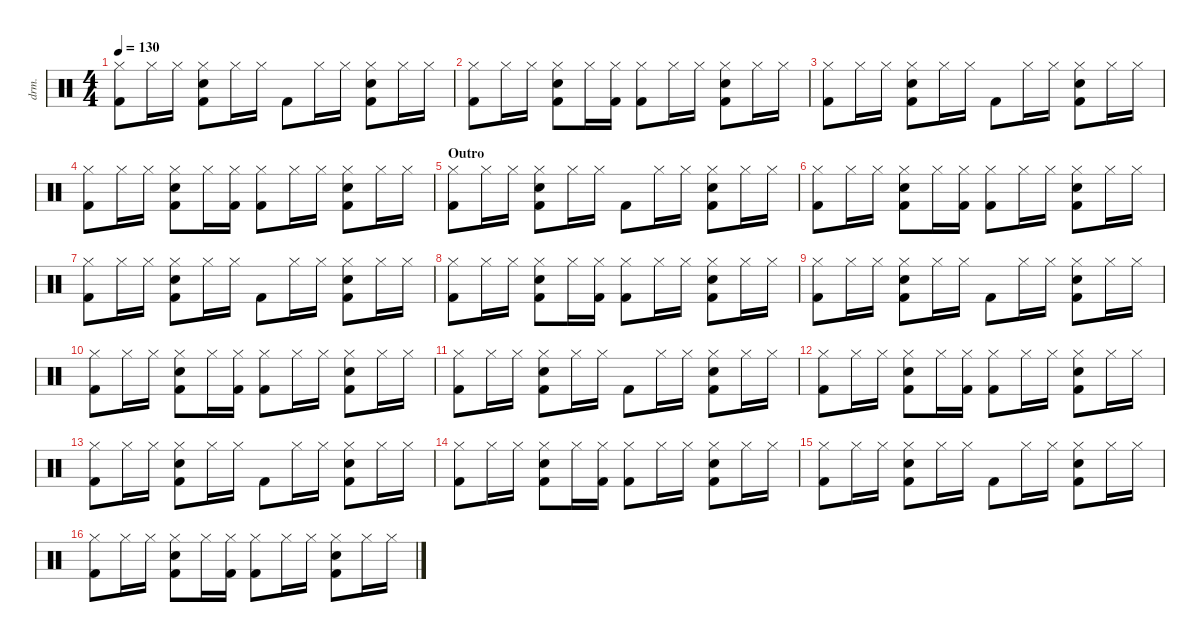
\defaultSystemsLayout 4
\hideDynamics
\bracketExtendMode nobrackets
\otherSystemsTrackNameOrientation horizontal
\track ("Percussion" "drm.") {defaultSystemsLayout 4 instrument percussion}
\staff {score}
\articulation defaults
\ts (4 4)
\tempo 130
\clef neutral
\ks c
("Hi-Hat (closed)" "Kick (hit) 2").8{dy f beam Down} "Hi-Hat (closed)".16{beam Down} "Hi-Hat (closed)".16{beam Down} ("Hi-Hat (closed)" "Snare (hit) 2" "Kick (hit) 2").8{beam Down} "Hi-Hat (closed)".16{beam Down} "Hi-Hat (closed)".16{beam Down} "Kick (hit) 2".8{beam Down} "Hi-Hat (closed)".16{beam Down} "Hi-Hat (closed)".16{beam Down} ("Hi-Hat (closed)" "Snare (hit) 2" "Kick (hit) 2").8{beam Down} "Hi-Hat (closed)".16{beam Down} "Hi-Hat (closed)".16{beam Down} |
("Hi-Hat (closed)" "Kick (hit) 2").8{beam Down} "Hi-Hat (closed)".16{beam Down} "Hi-Hat (closed)".16{beam Down} ("Hi-Hat (closed)" "Snare (hit) 2" "Kick (hit) 2").8{beam Down} "Hi-Hat (closed)".16{beam Down} ("Hi-Hat (closed)" "Kick (hit) 2").16{beam Down} ("Hi-Hat (closed)" "Kick (hit) 2").8{beam Down} "Hi-Hat (closed)".16{beam Down} "Hi-Hat (closed)".16{beam Down} ("Hi-Hat (closed)" "Snare (hit) 2" "Kick (hit) 2").8{beam Down} "Hi-Hat (closed)".16{beam Down} "Hi-Hat (closed)".16{beam Down} |
("Hi-Hat (closed)" "Kick (hit) 2").8{beam Down} "Hi-Hat (closed)".16{beam Down} "Hi-Hat (closed)".16{beam Down} ("Hi-Hat (closed)" "Snare (hit) 2" "Kick (hit) 2").8{beam Down} "Hi-Hat (closed)".16{beam Down} "Hi-Hat (closed)".16{beam Down} "Kick (hit) 2".8{beam Down} "Hi-Hat (closed)".16{beam Down} "Hi-Hat (closed)".16{beam Down} ("Hi-Hat (closed)" "Snare (hit) 2" "Kick (hit) 2").8{beam Down} "Hi-Hat (closed)".16{beam Down} "Hi-Hat (closed)".16{beam Down} |
("Hi-Hat (closed)" "Kick (hit) 2").8{beam Down} "Hi-Hat (closed)".16{beam Down} "Hi-Hat (closed)".16{beam Down} ("Hi-Hat (closed)" "Snare (hit) 2" "Kick (hit) 2").8{beam Down} "Hi-Hat (closed)".16{beam Down} ("Hi-Hat (closed)" "Kick (hit) 2").16{beam Down} ("Hi-Hat (closed)" "Kick (hit) 2").8{beam Down} "Hi-Hat (closed)".16{beam Down} "Hi-Hat (closed)".16{beam Down} ("Hi-Hat (closed)" "Snare (hit) 2" "Kick (hit) 2").8{beam Down} "Hi-Hat (closed)".16{beam Down} "Hi-Hat (closed)".16{beam Down} |
\section ("" "Outro")
("Hi-Hat (closed)" "Kick (hit) 2").8{beam Down} "Hi-Hat (closed)".16{beam Down} "Hi-Hat (closed)".16{beam Down} ("Hi-Hat (closed)" "Snare (hit) 2" "Kick (hit) 2").8{beam Down} "Hi-Hat (closed)".16{beam Down} "Hi-Hat (closed)".16{beam Down} "Kick (hit) 2".8{beam Down} "Hi-Hat (closed)".16{beam Down} "Hi-Hat (closed)".16{beam Down} ("Hi-Hat (closed)" "Snare (hit) 2" "Kick (hit) 2").8{beam Down} "Hi-Hat (closed)".16{beam Down} "Hi-Hat (closed)".16{beam Down} |
("Hi-Hat (closed)" "Kick (hit) 2").8{beam Down} "Hi-Hat (closed)".16{beam Down} "Hi-Hat (closed)".16{beam Down} ("Hi-Hat (closed)" "Snare (hit) 2" "Kick (hit) 2").8{beam Down} "Hi-Hat (closed)".16{beam Down} ("Hi-Hat (closed)" "Kick (hit) 2").16{beam Down} ("Hi-Hat (closed)" "Kick (hit) 2").8{beam Down} "Hi-Hat (closed)".16{beam Down} "Hi-Hat (closed)".16{beam Down} ("Hi-Hat (closed)" "Snare (hit) 2" "Kick (hit) 2").8{beam Down} "Hi-Hat (closed)".16{beam Down} "Hi-Hat (closed)".16{beam Down} |
("Hi-Hat (closed)" "Kick (hit) 2").8{beam Down} "Hi-Hat (closed)".16{beam Down} "Hi-Hat (closed)".16{beam Down} ("Hi-Hat (closed)" "Snare (hit) 2" "Kick (hit) 2").8{beam Down} "Hi-Hat (closed)".16{beam Down} "Hi-Hat (closed)".16{beam Down} "Kick (hit) 2".8{beam Down} "Hi-Hat (closed)".16{beam Down} "Hi-Hat (closed)".16{beam Down} ("Hi-Hat (closed)" "Snare (hit) 2" "Kick (hit) 2").8{beam Down} "Hi-Hat (closed)".16{beam Down} "Hi-Hat (closed)".16{beam Down} |
("Hi-Hat (closed)" "Kick (hit) 2").8{beam Down} "Hi-Hat (closed)".16{beam Down} "Hi-Hat (closed)".16{beam Down} ("Hi-Hat (closed)" "Snare (hit) 2" "Kick (hit) 2").8{beam Down} "Hi-Hat (closed)".16{beam Down} ("Hi-Hat (closed)" "Kick (hit) 2").16{beam Down} ("Hi-Hat (closed)" "Kick (hit) 2").8{beam Down} "Hi-Hat (closed)".16{beam Down} "Hi-Hat (closed)".16{beam Down} ("Hi-Hat (closed)" "Snare (hit) 2" "Kick (hit) 2").8{beam Down} "Hi-Hat (closed)".16{beam Down} "Hi-Hat (closed)".16{beam Down} |
("Hi-Hat (closed)" "Kick (hit) 2").8{beam Down} "Hi-Hat (closed)".16{beam Down} "Hi-Hat (closed)".16{beam Down} ("Hi-Hat (closed)" "Snare (hit) 2" "Kick (hit) 2").8{beam Down} "Hi-Hat (closed)".16{beam Down} "Hi-Hat (closed)".16{beam Down} "Kick (hit) 2".8{beam Down} "Hi-Hat (closed)".16{beam Down} "Hi-Hat (closed)".16{beam Down} ("Hi-Hat (closed)" "Snare (hit) 2" "Kick (hit) 2").8{beam Down} "Hi-Hat (closed)".16{beam Down} "Hi-Hat (closed)".16{beam Down} |
("Hi-Hat (closed)" "Kick (hit) 2").8{beam Down} "Hi-Hat (closed)".16{beam Down} "Hi-Hat (closed)".16{beam Down} ("Hi-Hat (closed)" "Snare (hit) 2" "Kick (hit) 2").8{beam Down} "Hi-Hat (closed)".16{beam Down} ("Hi-Hat (closed)" "Kick (hit) 2").16{beam Down} ("Hi-Hat (closed)" "Kick (hit) 2").8{beam Down} "Hi-Hat (closed)".16{beam Down} "Hi-Hat (closed)".16{beam Down} ("Hi-Hat (closed)" "Snare (hit) 2" "Kick (hit) 2").8{beam Down} "Hi-Hat (closed)".16{beam Down} "Hi-Hat (closed)".16{beam Down} |
("Hi-Hat (closed)" "Kick (hit) 2").8{beam Down} "Hi-Hat (closed)".16{beam Down} "Hi-Hat (closed)".16{beam Down} ("Hi-Hat (closed)" "Snare (hit) 2" "Kick (hit) 2").8{beam Down} "Hi-Hat (closed)".16{beam Down} "Hi-Hat (closed)".16{beam Down} "Kick (hit) 2".8{beam Down} "Hi-Hat (closed)".16{beam Down} "Hi-Hat (closed)".16{beam Down} ("Hi-Hat (closed)" "Snare (hit) 2" "Kick (hit) 2").8{beam Down} "Hi-Hat (closed)".16{beam Down} "Hi-Hat (closed)".16{beam Down} |
("Hi-Hat (closed)" "Kick (hit) 2").8{beam Down} "Hi-Hat (closed)".16{beam Down} "Hi-Hat (closed)".16{beam Down} ("Hi-Hat (closed)" "Snare (hit) 2" "Kick (hit) 2").8{beam Down} "Hi-Hat (closed)".16{beam Down} ("Hi-Hat (closed)" "Kick (hit) 2").16{beam Down} ("Hi-Hat (closed)" "Kick (hit) 2").8{beam Down} "Hi-Hat (closed)".16{beam Down} "Hi-Hat (closed)".16{beam Down} ("Hi-Hat (closed)" "Snare (hit) 2" "Kick (hit) 2").8{beam Down} "Hi-Hat (closed)".16{beam Down} "Hi-Hat (closed)".16{beam Down} |
("Hi-Hat (closed)" "Kick (hit) 2").8{beam Down} "Hi-Hat (closed)".16{beam Down} "Hi-Hat (closed)".16{beam Down} ("Hi-Hat (closed)" "Snare (hit) 2" "Kick (hit) 2").8{beam Down} "Hi-Hat (closed)".16{beam Down} "Hi-Hat (closed)".16{beam Down} "Kick (hit) 2".8{beam Down} "Hi-Hat (closed)".16{beam Down} "Hi-Hat (closed)".16{beam Down} ("Hi-Hat (closed)" "Snare (hit) 2" "Kick (hit) 2").8{beam Down} "Hi-Hat (closed)".16{beam Down} "Hi-Hat (closed)".16{beam Down} |
("Hi-Hat (closed)" "Kick (hit) 2").8{beam Down} "Hi-Hat (closed)".16{beam Down} "Hi-Hat (closed)".16{beam Down} ("Hi-Hat (closed)" "Snare (hit) 2" "Kick (hit) 2").8{beam Down} "Hi-Hat (closed)".16{beam Down} ("Hi-Hat (closed)" "Kick (hit) 2").16{beam Down} ("Hi-Hat (closed)" "Kick (hit) 2").8{beam Down} "Hi-Hat (closed)".16{beam Down} "Hi-Hat (closed)".16{beam Down} ("Hi-Hat (closed)" "Snare (hit) 2" "Kick (hit) 2").8{beam Down} "Hi-Hat (closed)".16{beam Down} "Hi-Hat (closed)".16{beam Down} |
("Hi-Hat (closed)" "Kick (hit) 2").8{beam Down} "Hi-Hat (closed)".16{beam Down} "Hi-Hat (closed)".16{beam Down} ("Hi-Hat (closed)" "Snare (hit) 2" "Kick (hit) 2").8{beam Down} "Hi-Hat (closed)".16{beam Down} "Hi-Hat (closed)".16{beam Down} "Kick (hit) 2".8{beam Down} "Hi-Hat (closed)".16{beam Down} "Hi-Hat (closed)".16{beam Down} ("Hi-Hat (closed)" "Snare (hit) 2" "Kick (hit) 2").8{beam Down} "Hi-Hat (closed)".16{beam Down} "Hi-Hat (closed)".16{beam Down} |
("Hi-Hat (closed)" "Kick (hit) 2").8{beam Down} "Hi-Hat (closed)".16{beam Down} "Hi-Hat (closed)".16{beam Down} ("Hi-Hat (closed)" "Snare (hit) 2" "Kick (hit) 2").8{beam Down} "Hi-Hat (closed)".16{beam Down} ("Hi-Hat (closed)" "Kick (hit) 2").16{beam Down} ("Hi-Hat (closed)" "Kick (hit) 2").8{beam Down} "Hi-Hat (closed)".16{beam Down} "Hi-Hat (closed)".16{beam Down} ("Hi-Hat (closed)" "Snare (hit) 2" "Kick (hit) 2").8{beam Down} "Hi-Hat (closed)".16{beam Down} "Hi-Hat (closed)".16{beam Down}
